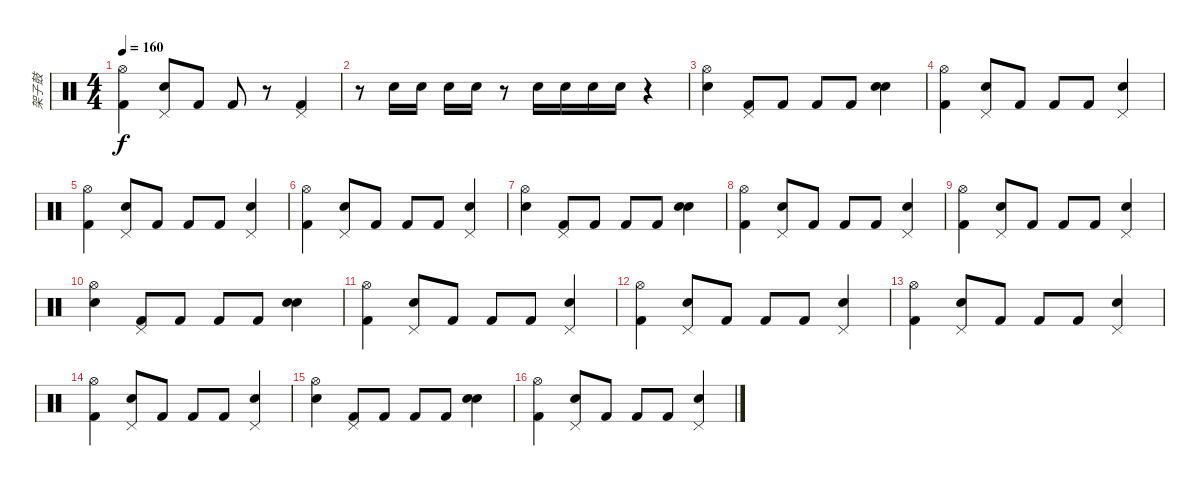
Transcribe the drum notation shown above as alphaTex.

\track ("架子鼓" "架子鼓") {instrument percussion}
\staff {score}
\articulation defaults
\ts (4 4)
\tempo 160
\clef neutral
\ks c
("Kick (hit) 2" "Hi-Hat (open)").4{dy f} ("Electric Snare (hit)" "Pedal Hi-Hat (hit)").8 "Kick (hit) 2".8 "Kick (hit) 2".8 r.8 ("Kick (hit) 2" "Pedal Hi-Hat (hit)").4 |
r.8 "Electric Snare (hit)".16 "Electric Snare (hit)".16 "Electric Snare (hit)".16 "Electric Snare (hit)".16 r.8 "Electric Snare (hit)".16 "Electric Snare (hit)".16 "Electric Snare (hit)".16 "Electric Snare (hit)".16 r.4 |
("Snare (hit) 2" "Hi-Hat (open)").4 ("Kick (hit) 2" "Pedal Hi-Hat (hit)").8 "Kick (hit) 2".8 "Kick (hit) 2".8 "Kick (hit) 2".8 ("Electric Snare (hit)" "Snare (hit) 2").4 |
("Kick (hit) 2" "Hi-Hat (open)").4 ("Electric Snare (hit)" "Pedal Hi-Hat (hit)").8 "Kick (hit) 2".8 "Kick (hit) 2".8 "Kick (hit) 2".8 ("Electric Snare (hit)" "Pedal Hi-Hat (hit)").4 |
("Kick (hit) 2" "Hi-Hat (open)").4 ("Electric Snare (hit)" "Pedal Hi-Hat (hit)").8 "Kick (hit) 2".8 "Kick (hit) 2".8 "Kick (hit) 2".8 ("Electric Snare (hit)" "Pedal Hi-Hat (hit)").4 |
("Kick (hit) 2" "Hi-Hat (open)").4 ("Electric Snare (hit)" "Pedal Hi-Hat (hit)").8 "Kick (hit) 2".8 "Kick (hit) 2".8 "Kick (hit) 2".8 ("Electric Snare (hit)" "Pedal Hi-Hat (hit)").4 |
("Snare (hit) 2" "Hi-Hat (open)").4 ("Kick (hit) 2" "Pedal Hi-Hat (hit)").8 "Kick (hit) 2".8 "Kick (hit) 2".8 "Kick (hit) 2".8 ("Electric Snare (hit)" "Snare (hit) 2").4 |
("Kick (hit) 2" "Hi-Hat (open)").4 ("Electric Snare (hit)" "Pedal Hi-Hat (hit)").8 "Kick (hit) 2".8 "Kick (hit) 2".8 "Kick (hit) 2".8 ("Electric Snare (hit)" "Pedal Hi-Hat (hit)").4 |
("Kick (hit) 2" "Hi-Hat (open)").4 ("Electric Snare (hit)" "Pedal Hi-Hat (hit)").8 "Kick (hit) 2".8 "Kick (hit) 2".8 "Kick (hit) 2".8 ("Electric Snare (hit)" "Pedal Hi-Hat (hit)").4 |
("Snare (hit) 2" "Hi-Hat (open)").4 ("Kick (hit) 2" "Pedal Hi-Hat (hit)").8 "Kick (hit) 2".8 "Kick (hit) 2".8 "Kick (hit) 2".8 ("Electric Snare (hit)" "Snare (hit) 2").4 |
("Kick (hit) 2" "Hi-Hat (open)").4 ("Electric Snare (hit)" "Pedal Hi-Hat (hit)").8 "Kick (hit) 2".8 "Kick (hit) 2".8 "Kick (hit) 2".8 ("Electric Snare (hit)" "Pedal Hi-Hat (hit)").4 |
("Kick (hit) 2" "Hi-Hat (open)").4 ("Electric Snare (hit)" "Pedal Hi-Hat (hit)").8 "Kick (hit) 2".8 "Kick (hit) 2".8 "Kick (hit) 2".8 ("Electric Snare (hit)" "Pedal Hi-Hat (hit)").4 |
("Kick (hit) 2" "Hi-Hat (open)").4 ("Electric Snare (hit)" "Pedal Hi-Hat (hit)").8 "Kick (hit) 2".8 "Kick (hit) 2".8 "Kick (hit) 2".8 ("Electric Snare (hit)" "Pedal Hi-Hat (hit)").4 |
("Kick (hit) 2" "Hi-Hat (open)").4 ("Electric Snare (hit)" "Pedal Hi-Hat (hit)").8 "Kick (hit) 2".8 "Kick (hit) 2".8 "Kick (hit) 2".8 ("Electric Snare (hit)" "Pedal Hi-Hat (hit)").4 |
("Snare (hit) 2" "Hi-Hat (open)").4 ("Kick (hit) 2" "Pedal Hi-Hat (hit)").8 "Kick (hit) 2".8 "Kick (hit) 2".8 "Kick (hit) 2".8 ("Electric Snare (hit)" "Snare (hit) 2").4 |
("Kick (hit) 2" "Hi-Hat (open)").4 ("Electric Snare (hit)" "Pedal Hi-Hat (hit)").8 "Kick (hit) 2".8 "Kick (hit) 2".8 "Kick (hit) 2".8 ("Electric Snare (hit)" "Pedal Hi-Hat (hit)").4
